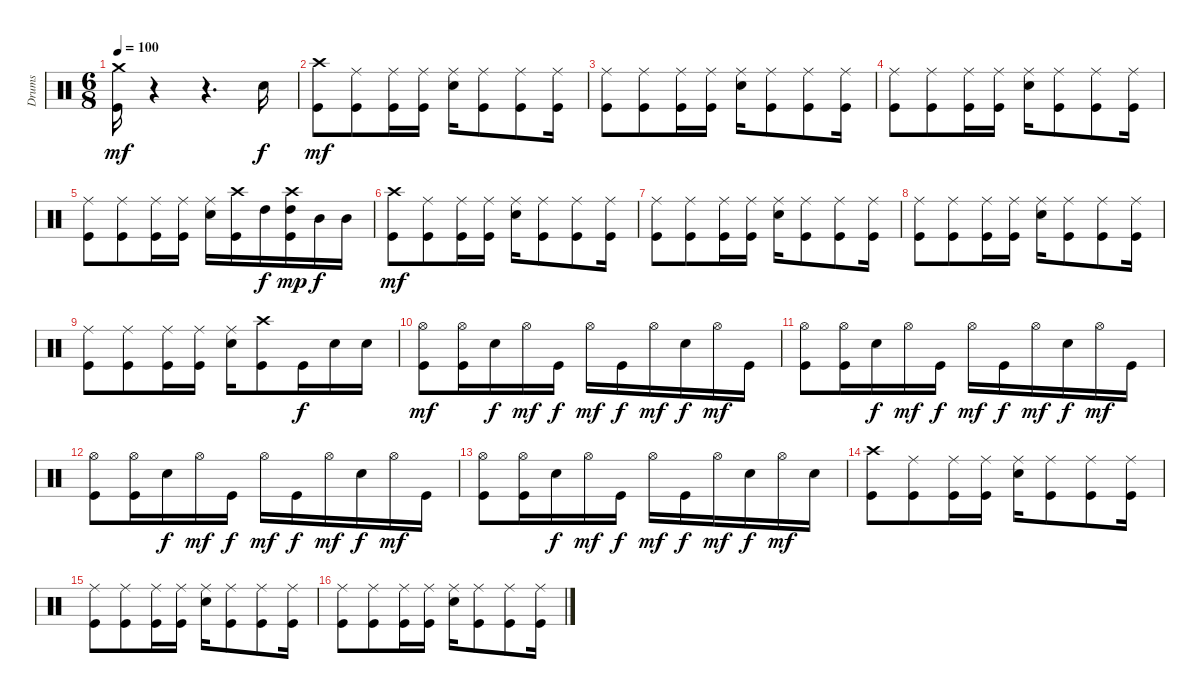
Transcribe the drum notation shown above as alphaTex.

\track ("Drums" "Drums") {instrument percussion}
\staff {score}
\articulation defaults
\ts (6 8)
\tempo 100
\clef neutral
\ks c
("Crash medium (hit)" "Kick (hit)").16{dy mf} r.4 r.4{d} "Electric Snare (hit)".16{dy f} |
("Crash high (hit)" "Kick (hit)").8{dy mf} ("Ride (middle)" "Kick (hit)").8 ("Ride (middle)" "Kick (hit)").16 ("Ride (middle)" "Kick (hit)").16 ("Ride (middle)" "Electric Snare (hit)").16 ("Ride (middle)" "Kick (hit)").8 ("Ride (middle)" "Kick (hit)").8 ("Ride (middle)" "Kick (hit)").16 |
("Ride (middle)" "Kick (hit)").8 ("Ride (middle)" "Kick (hit)").8 ("Ride (middle)" "Kick (hit)").16 ("Ride (middle)" "Kick (hit)").16 ("Ride (middle)" "Electric Snare (hit)").16 ("Ride (middle)" "Kick (hit)").8 ("Ride (middle)" "Kick (hit)").8 ("Ride (middle)" "Kick (hit)").16 |
("Ride (middle)" "Kick (hit)").8 ("Ride (middle)" "Kick (hit)").8 ("Ride (middle)" "Kick (hit)").16 ("Ride (middle)" "Kick (hit)").16 ("Ride (middle)" "Electric Snare (hit)").16 ("Ride (middle)" "Kick (hit)").8 ("Ride (middle)" "Kick (hit)").8 ("Ride (middle)" "Kick (hit)").16 |
("Ride (middle)" "Kick (hit)").8 ("Ride (middle)" "Kick (hit)").8 ("Ride (middle)" "Kick (hit)").16 ("Ride (middle)" "Kick (hit)").16 ("Ride (middle)" "Electric Snare (hit)").16 ("Crash high (hit)" "Kick (hit)").16 "High Tom (hit)".16{dy f} ("Crash high (hit)" "High Tom (hit)" "Kick (hit)").16{dy mp} "Mid Tom (hit)".16{dy f} "Mid Tom (hit)".16 |
("Crash high (hit)" "Kick (hit)").8{dy mf} ("Ride (middle)" "Kick (hit)").8 ("Ride (middle)" "Kick (hit)").16 ("Ride (middle)" "Kick (hit)").16 ("Ride (middle)" "Electric Snare (hit)").16 ("Ride (middle)" "Kick (hit)").8 ("Ride (middle)" "Kick (hit)").8 ("Ride (middle)" "Kick (hit)").16 |
("Ride (middle)" "Kick (hit)").8 ("Ride (middle)" "Kick (hit)").8 ("Ride (middle)" "Kick (hit)").16 ("Ride (middle)" "Kick (hit)").16 ("Ride (middle)" "Electric Snare (hit)").16 ("Ride (middle)" "Kick (hit)").8 ("Ride (middle)" "Kick (hit)").8 ("Ride (middle)" "Kick (hit)").16 |
("Ride (middle)" "Kick (hit)").8 ("Ride (middle)" "Kick (hit)").8 ("Ride (middle)" "Kick (hit)").16 ("Ride (middle)" "Kick (hit)").16 ("Ride (middle)" "Electric Snare (hit)").16 ("Ride (middle)" "Kick (hit)").8 ("Ride (middle)" "Kick (hit)").8 ("Ride (middle)" "Kick (hit)").16 |
("Ride (middle)" "Kick (hit)").8 ("Ride (middle)" "Kick (hit)").8 ("Ride (middle)" "Kick (hit)").16 ("Ride (middle)" "Kick (hit)").16 ("Ride (middle)" "Electric Snare (hit)").16 ("Crash high (hit)" "Kick (hit)").8 "Kick (hit)".16{dy f} "Electric Snare (hit)".16 "Electric Snare (hit)".16 |
("Hi-Hat (open)" "Kick (hit)").8{dy mf} ("Hi-Hat (open)" "Kick (hit)").16 "Electric Snare (hit)".16{dy f} "Hi-Hat (open)".16{dy mf} "Kick (hit)".16{dy f} "Hi-Hat (open)".16{dy mf} "Kick (hit)".16{dy f} "Hi-Hat (open)".16{dy mf} "Electric Snare (hit)".16{dy f} "Hi-Hat (open)".16{dy mf} "Kick (hit)".16 |
("Hi-Hat (open)" "Kick (hit)").8 ("Hi-Hat (open)" "Kick (hit)").16 "Electric Snare (hit)".16{dy f} "Hi-Hat (open)".16{dy mf} "Kick (hit)".16{dy f} "Hi-Hat (open)".16{dy mf} "Kick (hit)".16{dy f} "Hi-Hat (open)".16{dy mf} "Electric Snare (hit)".16{dy f} "Hi-Hat (open)".16{dy mf} "Kick (hit)".16 |
("Hi-Hat (open)" "Kick (hit)").8 ("Hi-Hat (open)" "Kick (hit)").16 "Electric Snare (hit)".16{dy f} "Hi-Hat (open)".16{dy mf} "Kick (hit)".16{dy f} "Hi-Hat (open)".16{dy mf} "Kick (hit)".16{dy f} "Hi-Hat (open)".16{dy mf} "Electric Snare (hit)".16{dy f} "Hi-Hat (open)".16{dy mf} "Kick (hit)".16 |
("Hi-Hat (open)" "Kick (hit)").8 ("Hi-Hat (open)" "Kick (hit)").16 "Electric Snare (hit)".16{dy f} "Hi-Hat (open)".16{dy mf} "Kick (hit)".16{dy f} "Hi-Hat (open)".16{dy mf} "Kick (hit)".16{dy f} "Hi-Hat (open)".16{dy mf} "Electric Snare (hit)".16{dy f} "Hi-Hat (open)".16{dy mf} "Electric Snare (hit)".16 |
("Crash high (hit)" "Kick (hit)").8 ("Ride (middle)" "Kick (hit)").8 ("Ride (middle)" "Kick (hit)").16 ("Ride (middle)" "Kick (hit)").16 ("Ride (middle)" "Electric Snare (hit)").16 ("Ride (middle)" "Kick (hit)").8 ("Ride (middle)" "Kick (hit)").8 ("Ride (middle)" "Kick (hit)").16 |
("Ride (middle)" "Kick (hit)").8 ("Ride (middle)" "Kick (hit)").8 ("Ride (middle)" "Kick (hit)").16 ("Ride (middle)" "Kick (hit)").16 ("Ride (middle)" "Electric Snare (hit)").16 ("Ride (middle)" "Kick (hit)").8 ("Ride (middle)" "Kick (hit)").8 ("Ride (middle)" "Kick (hit)").16 |
("Ride (middle)" "Kick (hit)").8 ("Ride (middle)" "Kick (hit)").8 ("Ride (middle)" "Kick (hit)").16 ("Ride (middle)" "Kick (hit)").16 ("Ride (middle)" "Electric Snare (hit)").16 ("Ride (middle)" "Kick (hit)").8 ("Ride (middle)" "Kick (hit)").8 ("Ride (middle)" "Kick (hit)").16
